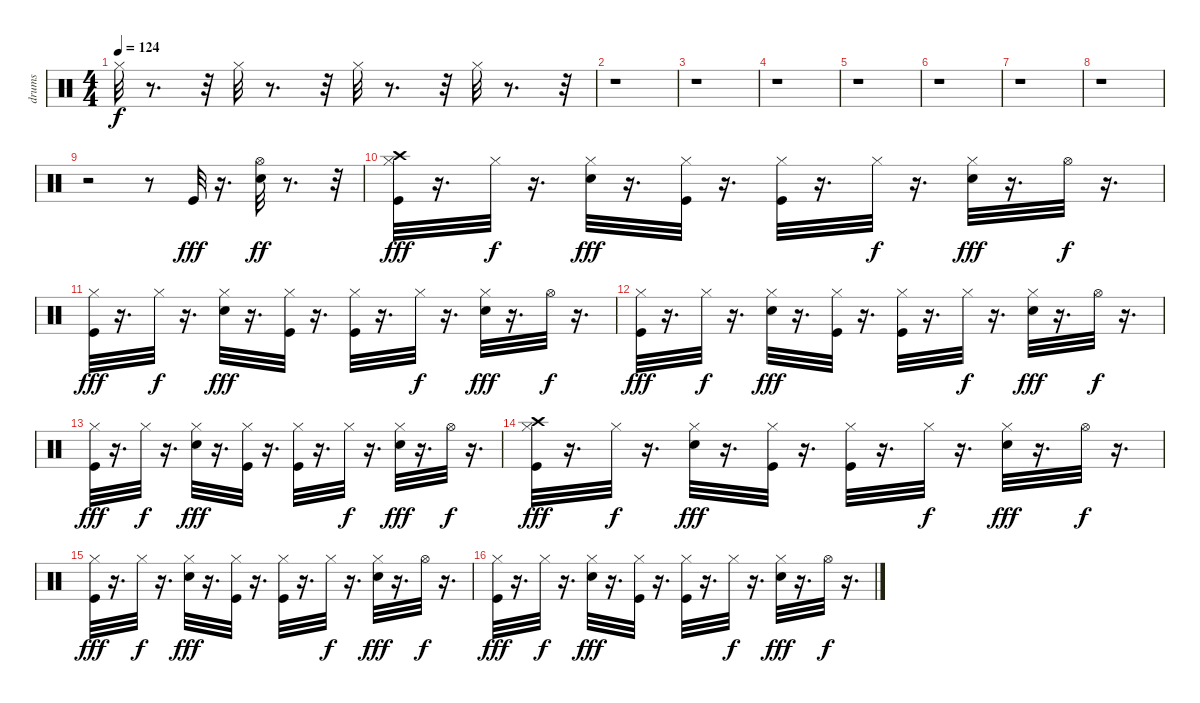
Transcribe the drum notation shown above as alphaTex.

\track ("drums" "drums") {instrument percussion}
\staff {score}
\articulation defaults
\ts (4 4)
\tempo 124
\clef neutral
\ks c "Hi-Hat (closed)".32{dy f}
r.8{d} r.32 "Hi-Hat (closed)".32 r.8{d} r.32 "Hi-Hat (closed)".32 r.8{d} r.32 "Hi-Hat (closed)".32 r.8{d} r.32 |
r.1 |
r.1 |
r.1 |
r.1 |
r.1 |
r.1 |
r.1 |
r.2 r.8 "Kick (hit)".32{dy fff} r.16{d} ("Electric Snare (hit)" "Hi-Hat (open)").32{dy ff} r.8{d} r.32 |
("Crash high (hit)" "Hi-Hat (closed)" "Kick (hit)").32{dy fff} r.16{d} "Hi-Hat (closed)".32{dy f} r.16{d} ("Hi-Hat (closed)" "Electric Snare (hit)").32{dy fff} r.16{d} ("Hi-Hat (closed)" "Kick (hit)").32 r.16{d} ("Hi-Hat (closed)" "Kick (hit)").32 r.16{d} "Hi-Hat (closed)".32{dy f} r.16{d} ("Hi-Hat (closed)" "Electric Snare (hit)").32{dy fff} r.16{d} "Hi-Hat (open)".32{dy f} r.16{d} |
("Kick (hit)" "Hi-Hat (closed)").32{dy fff} r.16{d} "Hi-Hat (closed)".32{dy f} r.16{d} ("Electric Snare (hit)" "Hi-Hat (closed)").32{dy fff} r.16{d} ("Kick (hit)" "Hi-Hat (closed)").32 r.16{d} ("Kick (hit)" "Hi-Hat (closed)").32 r.16{d} "Hi-Hat (closed)".32{dy f} r.16{d} ("Electric Snare (hit)" "Hi-Hat (closed)").32{dy fff} r.16{d} "Hi-Hat (open)".32{dy f} r.16{d} |
("Hi-Hat (closed)" "Kick (hit)").32{dy fff} r.16{d} "Hi-Hat (closed)".32{dy f} r.16{d} ("Hi-Hat (closed)" "Electric Snare (hit)").32{dy fff} r.16{d} ("Hi-Hat (closed)" "Kick (hit)").32 r.16{d} ("Hi-Hat (closed)" "Kick (hit)").32 r.16{d} "Hi-Hat (closed)".32{dy f} r.16{d} ("Hi-Hat (closed)" "Electric Snare (hit)").32{dy fff} r.16{d} "Hi-Hat (open)".32{dy f} r.16{d} |
("Kick (hit)" "Hi-Hat (closed)").32{dy fff} r.16{d} "Hi-Hat (closed)".32{dy f} r.16{d} ("Electric Snare (hit)" "Hi-Hat (closed)").32{dy fff} r.16{d} ("Kick (hit)" "Hi-Hat (closed)").32 r.16{d} ("Kick (hit)" "Hi-Hat (closed)").32 r.16{d} "Hi-Hat (closed)".32{dy f} r.16{d} ("Electric Snare (hit)" "Hi-Hat (closed)").32{dy fff} r.16{d} "Hi-Hat (open)".32{dy f} r.16{d} |
("Crash high (hit)" "Hi-Hat (closed)" "Kick (hit)").32{dy fff} r.16{d} "Hi-Hat (closed)".32{dy f} r.16{d} ("Hi-Hat (closed)" "Electric Snare (hit)").32{dy fff} r.16{d} ("Hi-Hat (closed)" "Kick (hit)").32 r.16{d} ("Hi-Hat (closed)" "Kick (hit)").32 r.16{d} "Hi-Hat (closed)".32{dy f} r.16{d} ("Hi-Hat (closed)" "Electric Snare (hit)").32{dy fff} r.16{d} "Hi-Hat (open)".32{dy f} r.16{d} |
("Kick (hit)" "Hi-Hat (closed)").32{dy fff} r.16{d} "Hi-Hat (closed)".32{dy f} r.16{d} ("Electric Snare (hit)" "Hi-Hat (closed)").32{dy fff} r.16{d} ("Kick (hit)" "Hi-Hat (closed)").32 r.16{d} ("Kick (hit)" "Hi-Hat (closed)").32 r.16{d} "Hi-Hat (closed)".32{dy f} r.16{d} ("Electric Snare (hit)" "Hi-Hat (closed)").32{dy fff} r.16{d} "Hi-Hat (open)".32{dy f} r.16{d} |
("Hi-Hat (closed)" "Kick (hit)").32{dy fff} r.16{d} "Hi-Hat (closed)".32{dy f} r.16{d} ("Hi-Hat (closed)" "Electric Snare (hit)").32{dy fff} r.16{d} ("Hi-Hat (closed)" "Kick (hit)").32 r.16{d} ("Hi-Hat (closed)" "Kick (hit)").32 r.16{d} "Hi-Hat (closed)".32{dy f} r.16{d} ("Hi-Hat (closed)" "Electric Snare (hit)").32{dy fff} r.16{d} "Hi-Hat (open)".32{dy f} r.16{d}
